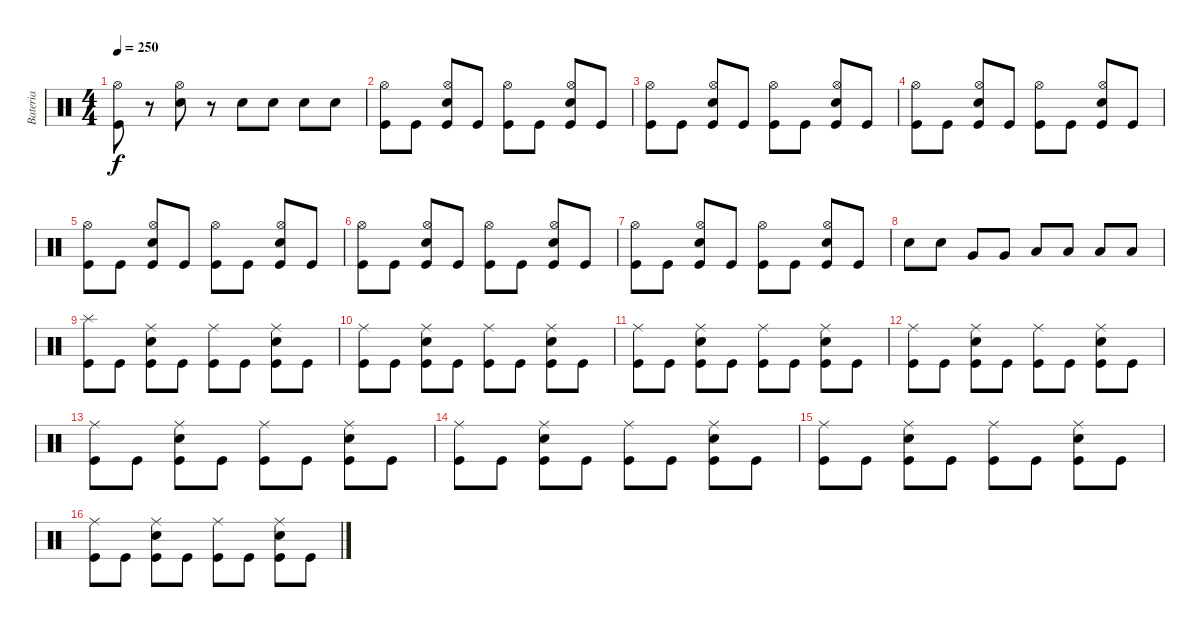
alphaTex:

\track ("Bateria" "Bateria") {instrument percussion}
\staff {score}
\articulation defaults
\ts (4 4)
\tempo 250
\clef neutral
\ks c
("Kick (hit)" "Hi-Hat (open)").8{dy f} r.8 ("Electric Snare (hit)" "Hi-Hat (open)").8 r.8 "Electric Snare (hit)".8 "Electric Snare (hit)".8 "Electric Snare (hit)".8 "Electric Snare (hit)".8 |
("Kick (hit)" "Hi-Hat (open)").8 "Kick (hit)".8 ("Kick (hit)" "Electric Snare (hit)" "Hi-Hat (open)").8 "Kick (hit)".8 ("Kick (hit)" "Hi-Hat (open)").8 "Kick (hit)".8 ("Kick (hit)" "Electric Snare (hit)" "Hi-Hat (open)").8 "Kick (hit)".8 |
("Kick (hit)" "Hi-Hat (open)").8 "Kick (hit)".8 ("Kick (hit)" "Electric Snare (hit)" "Hi-Hat (open)").8 "Kick (hit)".8 ("Kick (hit)" "Hi-Hat (open)").8 "Kick (hit)".8 ("Kick (hit)" "Electric Snare (hit)" "Hi-Hat (open)").8 "Kick (hit)".8 |
("Kick (hit)" "Hi-Hat (open)").8 "Kick (hit)".8 ("Kick (hit)" "Electric Snare (hit)" "Hi-Hat (open)").8 "Kick (hit)".8 ("Kick (hit)" "Hi-Hat (open)").8 "Kick (hit)".8 ("Kick (hit)" "Electric Snare (hit)" "Hi-Hat (open)").8 "Kick (hit)".8 |
("Kick (hit)" "Hi-Hat (open)").8 "Kick (hit)".8 ("Kick (hit)" "Electric Snare (hit)" "Hi-Hat (open)").8 "Kick (hit)".8 ("Kick (hit)" "Hi-Hat (open)").8 "Kick (hit)".8 ("Kick (hit)" "Electric Snare (hit)" "Hi-Hat (open)").8 "Kick (hit)".8 |
("Kick (hit)" "Hi-Hat (open)").8 "Kick (hit)".8 ("Kick (hit)" "Electric Snare (hit)" "Hi-Hat (open)").8 "Kick (hit)".8 ("Kick (hit)" "Hi-Hat (open)").8 "Kick (hit)".8 ("Kick (hit)" "Electric Snare (hit)" "Hi-Hat (open)").8 "Kick (hit)".8 |
("Kick (hit)" "Hi-Hat (open)").8 "Kick (hit)".8 ("Kick (hit)" "Electric Snare (hit)" "Hi-Hat (open)").8 "Kick (hit)".8 ("Kick (hit)" "Hi-Hat (open)").8 "Kick (hit)".8 ("Kick (hit)" "Electric Snare (hit)" "Hi-Hat (open)").8 "Kick (hit)".8 |
"Electric Snare (hit)".8 "Electric Snare (hit)".8 "Very Low Tom (hit)".8 "Very Low Tom (hit)".8 "Low Floor Tom (hit)".8 "Low Floor Tom (hit)".8 "Low Tom (hit)".8 "Low Tom (hit)".8 |
("Kick (hit)" "Splash (hit)").8 "Kick (hit)".8 ("Kick (hit)" "Electric Snare (hit)" "Ride (middle)").8 "Kick (hit)".8 ("Kick (hit)" "Ride (middle)").8 "Kick (hit)".8 ("Kick (hit)" "Electric Snare (hit)" "Ride (middle)").8 "Kick (hit)".8 |
("Kick (hit)" "Ride (middle)").8 "Kick (hit)".8 ("Kick (hit)" "Electric Snare (hit)" "Ride (middle)").8 "Kick (hit)".8 ("Kick (hit)" "Ride (middle)").8 "Kick (hit)".8 ("Kick (hit)" "Electric Snare (hit)" "Ride (middle)").8 "Kick (hit)".8 |
("Kick (hit)" "Ride (middle)").8 "Kick (hit)".8 ("Kick (hit)" "Electric Snare (hit)" "Ride (middle)").8 "Kick (hit)".8 ("Kick (hit)" "Ride (middle)").8 "Kick (hit)".8 ("Kick (hit)" "Electric Snare (hit)" "Ride (middle)").8 "Kick (hit)".8 |
("Kick (hit)" "Ride (middle)").8 "Kick (hit)".8 ("Kick (hit)" "Electric Snare (hit)" "Ride (middle)").8 "Kick (hit)".8 ("Kick (hit)" "Ride (middle)").8 "Kick (hit)".8 ("Kick (hit)" "Electric Snare (hit)" "Ride (middle)").8 "Kick (hit)".8 |
("Kick (hit)" "Ride (middle)").8 "Kick (hit)".8 ("Kick (hit)" "Electric Snare (hit)" "Ride (middle)").8 "Kick (hit)".8 ("Kick (hit)" "Ride (middle)").8 "Kick (hit)".8 ("Kick (hit)" "Electric Snare (hit)" "Ride (middle)").8 "Kick (hit)".8 |
("Kick (hit)" "Ride (middle)").8 "Kick (hit)".8 ("Kick (hit)" "Electric Snare (hit)" "Ride (middle)").8 "Kick (hit)".8 ("Kick (hit)" "Ride (middle)").8 "Kick (hit)".8 ("Kick (hit)" "Electric Snare (hit)" "Ride (middle)").8 "Kick (hit)".8 |
("Kick (hit)" "Ride (middle)").8 "Kick (hit)".8 ("Kick (hit)" "Electric Snare (hit)" "Ride (middle)").8 "Kick (hit)".8 ("Kick (hit)" "Ride (middle)").8 "Kick (hit)".8 ("Kick (hit)" "Electric Snare (hit)" "Ride (middle)").8 "Kick (hit)".8 |
("Kick (hit)" "Ride (middle)").8 "Kick (hit)".8 ("Kick (hit)" "Electric Snare (hit)" "Ride (middle)").8 "Kick (hit)".8 ("Kick (hit)" "Ride (middle)").8 "Kick (hit)".8 ("Kick (hit)" "Electric Snare (hit)" "Ride (middle)").8 "Kick (hit)".8
